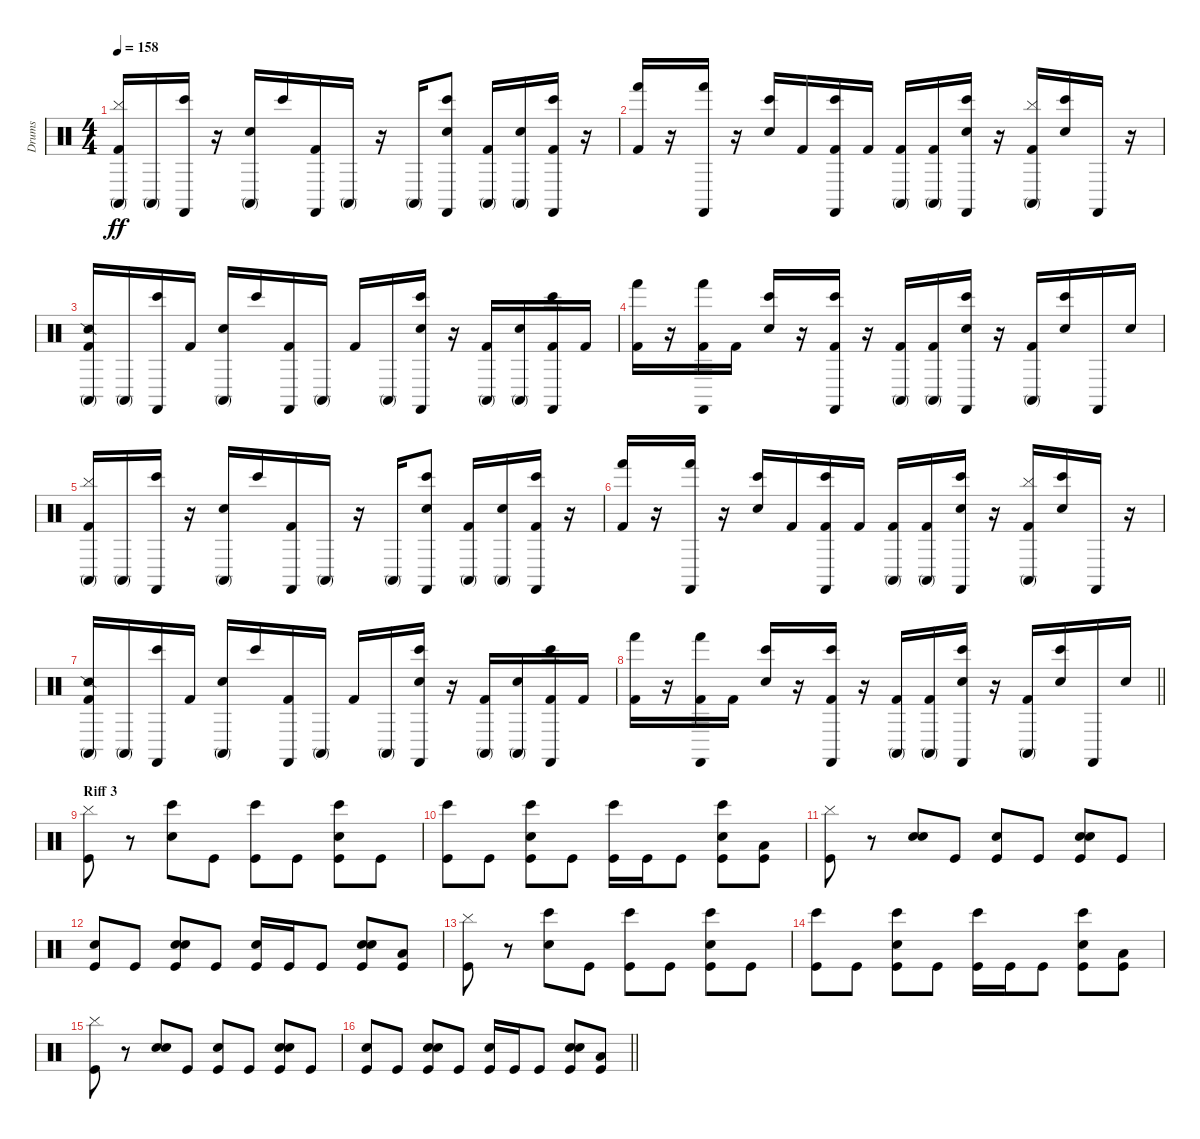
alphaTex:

\track ("Drums" "Drums") {instrument percussion}
\staff {score}
\articulation defaults
\ts (4 4)
\tempo 158
\clef neutral
\ks c
("Cymbal (hit)" "Kick (hit) 2" "Conga high (mute)").16{dy ff} "Conga high (mute)".16 ("Bongo High (hit)" "Castanets (hit)").16 r.16 ("Snare (hit) 2" "Conga high (mute)").16 "Bongo High (hit)".16 ("Kick (hit) 2" "Castanets (hit)").16 "Conga high (mute)".16 r.16 "Conga high (mute)".16 ("Snare (hit) 2" "Bongo High (hit)" "Castanets (hit)").8 ("Kick (hit) 2" "Conga high (mute)").16 ("Snare (hit) 2" "Conga high (mute)").16 ("Kick (hit) 2" "Bongo High (hit)" "Castanets (hit)").16 r.16 |
("Kick (hit) 2" "Hand (hit)").16 r.16 ("Hand (hit)" "Castanets (hit)").16 r.16 ("Snare (hit) 2" "Bongo High (hit)").16 "Kick (hit) 2".16 ("Kick (hit) 2" "Bongo High (hit)" "Castanets (hit)").16 "Kick (hit) 2".16 ("Kick (hit) 2" "Conga high (mute)").16 ("Kick (hit) 2" "Conga high (mute)").16 ("Snare (hit) 2" "Bongo High (hit)" "Castanets (hit)").16 r.16 ("Cymbal (hit)" "Kick (hit) 2" "Conga high (mute)").16 ("Snare (hit) 2" "Bongo High (hit)").16 "Castanets (hit)".16 r.16 |
("Snare (side stick) 2" "Kick (hit) 2" "Conga high (mute)").16 "Conga high (mute)".16 ("Bongo High (hit)" "Castanets (hit)").16 "Kick (hit) 2".16 ("Snare (hit) 2" "Conga high (mute)").16 "Bongo High (hit)".16 ("Kick (hit) 2" "Castanets (hit)").16 "Conga high (mute)".16 "Kick (hit) 2".16 "Conga high (mute)".16 ("Snare (hit) 2" "Bongo High (hit)" "Castanets (hit)").16 r.16 ("Kick (hit) 2" "Conga high (mute)").16 ("Snare (hit) 2" "Conga high (mute)").16 ("Kick (hit) 2" "Bongo High (hit)" "Castanets (hit)").16 "Kick (hit) 2".16 |
("Kick (hit) 2" "Hand (hit)").16 r.16 ("Kick (hit) 2" "Hand (hit)" "Castanets (hit)").16 "Kick (hit) 2".16 ("Snare (hit) 2" "Bongo High (hit)").16 r.16 ("Kick (hit) 2" "Bongo High (hit)" "Castanets (hit)").16 r.16 ("Kick (hit) 2" "Conga high (mute)").16 ("Kick (hit) 2" "Conga high (mute)").16 ("Snare (hit) 2" "Bongo High (hit)" "Castanets (hit)").16 r.16 ("Kick (hit) 2" "Conga high (mute)").16 ("Snare (hit) 2" "Bongo High (hit)").16 "Castanets (hit)".16 "Snare (hit) 2".16 |
("Cymbal (hit)" "Kick (hit) 2" "Conga high (mute)").16 "Conga high (mute)".16 ("Bongo High (hit)" "Castanets (hit)").16 r.16 ("Snare (hit) 2" "Conga high (mute)").16 "Bongo High (hit)".16 ("Kick (hit) 2" "Castanets (hit)").16 "Conga high (mute)".16 r.16 "Conga high (mute)".16 ("Snare (hit) 2" "Bongo High (hit)" "Castanets (hit)").8 ("Kick (hit) 2" "Conga high (mute)").16 ("Snare (hit) 2" "Conga high (mute)").16 ("Kick (hit) 2" "Bongo High (hit)" "Castanets (hit)").16 r.16 |
("Kick (hit) 2" "Hand (hit)").16 r.16 ("Hand (hit)" "Castanets (hit)").16 r.16 ("Snare (hit) 2" "Bongo High (hit)").16 "Kick (hit) 2".16 ("Kick (hit) 2" "Bongo High (hit)" "Castanets (hit)").16 "Kick (hit) 2".16 ("Kick (hit) 2" "Conga high (mute)").16 ("Kick (hit) 2" "Conga high (mute)").16 ("Snare (hit) 2" "Bongo High (hit)" "Castanets (hit)").16 r.16 ("Cymbal (hit)" "Kick (hit) 2" "Conga high (mute)").16 ("Snare (hit) 2" "Bongo High (hit)").16 "Castanets (hit)".16 r.16 |
("Snare (side stick) 2" "Kick (hit) 2" "Conga high (mute)").16 "Conga high (mute)".16 ("Bongo High (hit)" "Castanets (hit)").16 "Kick (hit) 2".16 ("Snare (hit) 2" "Conga high (mute)").16 "Bongo High (hit)".16 ("Kick (hit) 2" "Castanets (hit)").16 "Conga high (mute)".16 "Kick (hit) 2".16 "Conga high (mute)".16 ("Snare (hit) 2" "Bongo High (hit)" "Castanets (hit)").16 r.16 ("Kick (hit) 2" "Conga high (mute)").16 ("Snare (hit) 2" "Conga high (mute)").16 ("Kick (hit) 2" "Bongo High (hit)" "Castanets (hit)").16 "Kick (hit) 2".16 |
\barLineRight lightlight
("Kick (hit) 2" "Hand (hit)").16 r.16 ("Kick (hit) 2" "Hand (hit)" "Castanets (hit)").16 "Kick (hit) 2".16 ("Snare (hit) 2" "Bongo High (hit)").16 r.16 ("Kick (hit) 2" "Bongo High (hit)" "Castanets (hit)").16 r.16 ("Kick (hit) 2" "Conga high (mute)").16 ("Kick (hit) 2" "Conga high (mute)").16 ("Snare (hit) 2" "Bongo High (hit)" "Castanets (hit)").16 r.16 ("Kick (hit) 2" "Conga high (mute)").16 ("Snare (hit) 2" "Bongo High (hit)").16 "Castanets (hit)".16 "Snare (hit) 2".16 |
\section ("" "Riff 3")
("Cymbal (hit)" "Kick (hit)").8 r.8 ("Bongo High (hit)" "Snare (hit) 2").8 "Kick (hit)".8 ("Bongo High (hit)" "Kick (hit)").8 "Kick (hit)".8 ("Bongo High (hit)" "Kick (hit)" "Snare (hit) 2").8 "Kick (hit)".8 |
("Bongo High (hit)" "Kick (hit)").8 "Kick (hit)".8 ("Bongo High (hit)" "Kick (hit)" "Snare (hit) 2").8 "Kick (hit)".8 ("Bongo High (hit)" "Kick (hit)").16 "Kick (hit)".16 "Kick (hit)".8 ("Bongo High (hit)" "Kick (hit)" "Snare (hit) 2").8 ("Kick (hit)" "Low Tom (hit)").8 |
("Cymbal (hit)" "Kick (hit)").8 r.8 ("Snare (hit)" "Snare (hit) 2").8 "Kick (hit)".8 ("Snare (hit)" "Kick (hit)").8 "Kick (hit)".8 ("Snare (hit)" "Kick (hit)" "Snare (hit) 2").8 "Kick (hit)".8 |
("Snare (hit)" "Kick (hit)").8 "Kick (hit)".8 ("Snare (hit)" "Kick (hit)" "Snare (hit) 2").8 "Kick (hit)".8 ("Snare (hit)" "Kick (hit)").16 "Kick (hit)".16 "Kick (hit)".8 ("Snare (hit)" "Kick (hit)" "Snare (hit) 2").8 ("Kick (hit)" "Low Tom (hit)").8 |
("Cymbal (hit)" "Kick (hit)").8 r.8 ("Bongo High (hit)" "Snare (hit) 2").8 "Kick (hit)".8 ("Bongo High (hit)" "Kick (hit)").8 "Kick (hit)".8 ("Bongo High (hit)" "Kick (hit)" "Snare (hit) 2").8 "Kick (hit)".8 |
("Bongo High (hit)" "Kick (hit)").8 "Kick (hit)".8 ("Bongo High (hit)" "Kick (hit)" "Snare (hit) 2").8 "Kick (hit)".8 ("Bongo High (hit)" "Kick (hit)").16 "Kick (hit)".16 "Kick (hit)".8 ("Bongo High (hit)" "Kick (hit)" "Snare (hit) 2").8 ("Kick (hit)" "Low Tom (hit)").8 |
("Cymbal (hit)" "Kick (hit)").8 r.8 ("Snare (hit)" "Snare (hit) 2").8 "Kick (hit)".8 ("Snare (hit)" "Kick (hit)").8 "Kick (hit)".8 ("Snare (hit)" "Kick (hit)" "Snare (hit) 2").8 "Kick (hit)".8 |
\barLineRight lightlight
("Snare (hit)" "Kick (hit)").8 "Kick (hit)".8 ("Snare (hit)" "Kick (hit)" "Snare (hit) 2").8 "Kick (hit)".8 ("Snare (hit)" "Kick (hit)").16 "Kick (hit)".16 "Kick (hit)".8 ("Snare (hit)" "Kick (hit)" "Snare (hit) 2").8 ("Kick (hit)" "Low Tom (hit)").8
